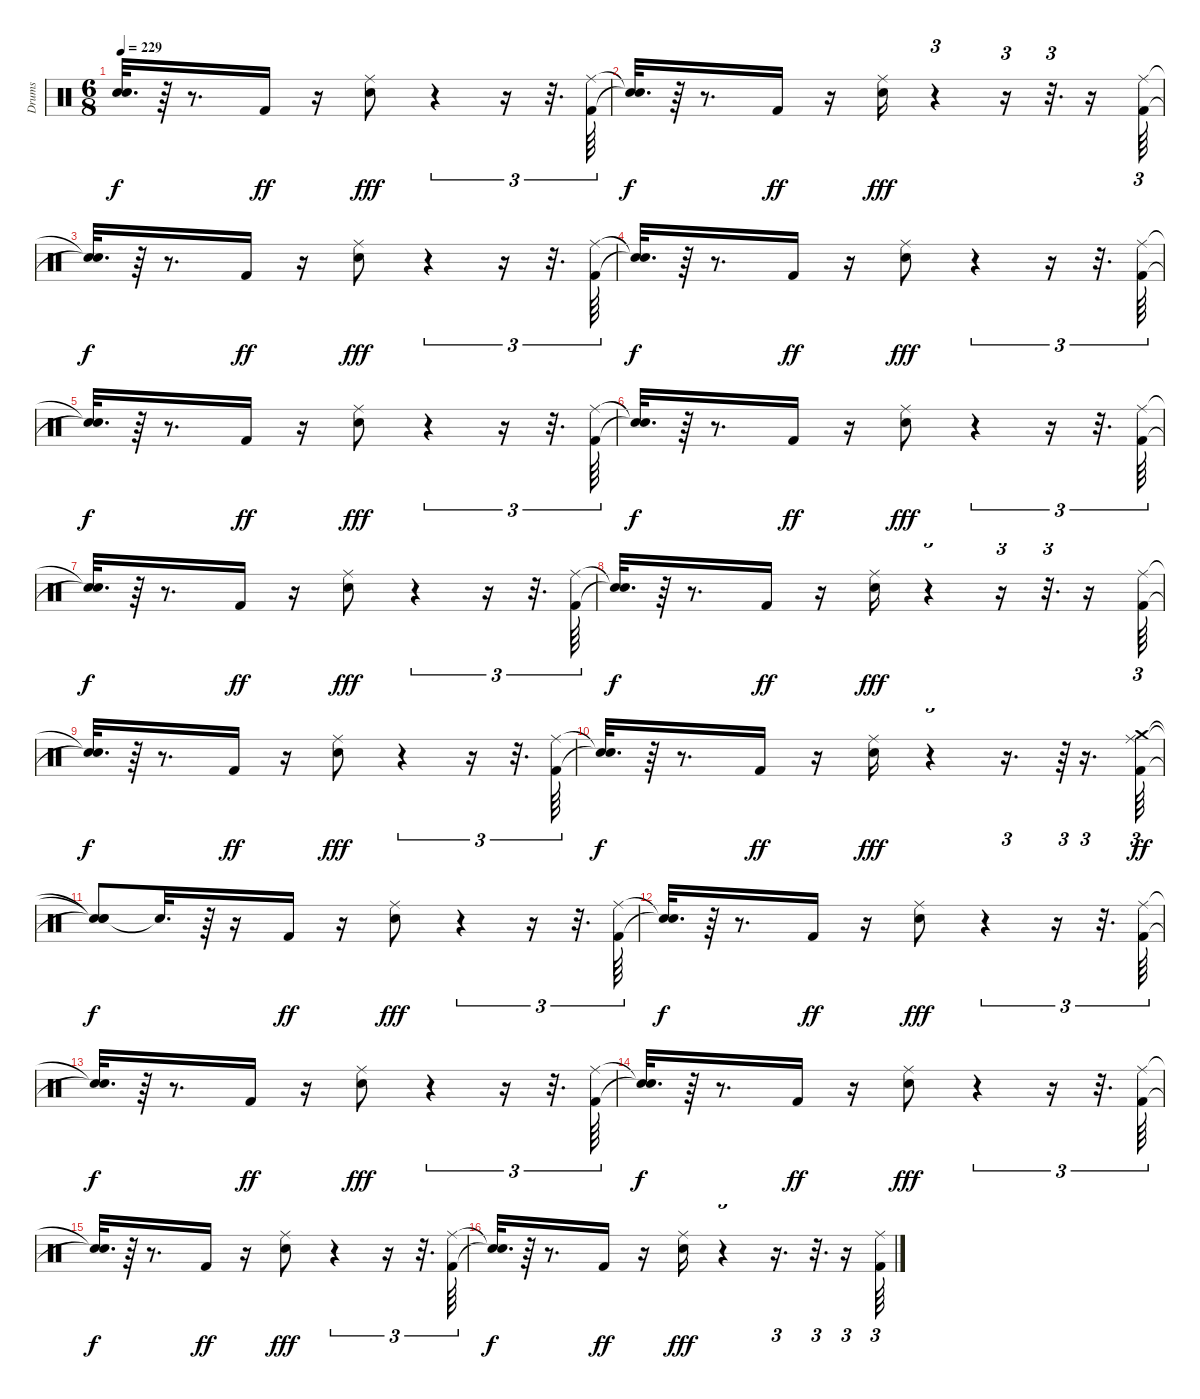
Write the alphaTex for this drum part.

\track ("Drums" "Drums") {instrument percussion}
\staff {score}
\articulation defaults
\ts (6 8)
\tempo 229
\clef neutral
\ks c
("Snare (hit)"{t} "Snare (hit)"{t}).32{d dy f} r.64 r.8{d} "Kick (hit) 2".16{dy ff} r.16 ("Snare (hit) 2" "Ride (middle)").8{dy fff} r.4{tu (3 2)} r.16{tu (3 2)} r.32{d tu (3 2)} ("Kick (hit) 2" "Ride (middle)").64{tu (3 2)} |
("Snare (hit)"{t} "Snare (hit)"{t}).32{d dy f} r.64 r.8{d} "Kick (hit) 2".16{dy ff} r.16 ("Snare (hit) 2" "Ride (middle)").16{dy fff} r.4{tu (3 2)} r.16{tu (3 2)} r.32{d tu (3 2)} r.16 ("Kick (hit) 2" "Ride (middle)").64{tu (3 2)} |
("Snare (hit)"{t} "Snare (hit)"{t}).32{d dy f} r.64 r.8{d} "Kick (hit) 2".16{dy ff} r.16 ("Snare (hit) 2" "Ride (middle)").8{dy fff} r.4{tu (3 2)} r.16{tu (3 2)} r.32{d tu (3 2)} ("Kick (hit) 2" "Ride (middle)").64{tu (3 2)} |
("Snare (hit)"{t} "Snare (hit)"{t}).32{d dy f} r.64 r.8{d} "Kick (hit) 2".16{dy ff} r.16 ("Snare (hit) 2" "Ride (middle)").8{dy fff} r.4{tu (3 2)} r.16{tu (3 2)} r.32{d tu (3 2)} ("Kick (hit) 2" "Ride (middle)").64{tu (3 2)} |
("Snare (hit)"{t} "Snare (hit)"{t}).32{d dy f} r.64 r.8{d} "Kick (hit) 2".16{dy ff} r.16 ("Snare (hit) 2" "Ride (middle)").8{dy fff} r.4{tu (3 2)} r.16{tu (3 2)} r.32{d tu (3 2)} ("Kick (hit) 2" "Ride (middle)").64{tu (3 2)} |
("Snare (hit)"{t} "Snare (hit)"{t}).32{d dy f} r.64 r.8{d} "Kick (hit) 2".16{dy ff} r.16 ("Snare (hit) 2" "Ride (middle)").8{dy fff} r.4{tu (3 2)} r.16{tu (3 2)} r.32{d tu (3 2)} ("Kick (hit) 2" "Ride (middle)").64{tu (3 2)} |
("Snare (hit)"{t} "Snare (hit)"{t}).32{d dy f} r.64 r.8{d} "Kick (hit) 2".16{dy ff} r.16 ("Snare (hit) 2" "Ride (middle)").8{dy fff} r.4{tu (3 2)} r.16{tu (3 2)} r.32{d tu (3 2)} ("Kick (hit) 2" "Ride (middle)").64{tu (3 2)} |
("Snare (hit)"{t} "Snare (hit)"{t}).32{d dy f} r.64 r.8{d} "Kick (hit) 2".16{dy ff} r.16 ("Snare (hit) 2" "Ride (middle)").16{dy fff} r.4{tu (3 2)} r.16{tu (3 2)} r.32{d tu (3 2)} r.16 ("Kick (hit) 2" "Ride (middle)").64{tu (3 2)} |
("Snare (hit)"{t} "Snare (hit)"{t}).32{d dy f} r.64 r.8{d} "Kick (hit) 2".16{dy ff} r.16 ("Snare (hit) 2" "Ride (middle)").8{dy fff} r.4{tu (3 2)} r.16{tu (3 2)} r.32{d tu (3 2)} ("Kick (hit) 2" "Ride (middle)").64{tu (3 2)} |
("Snare (hit)"{t} "Snare (hit)"{t}).32{d dy f} r.64 r.8{d} "Kick (hit) 2".16{dy ff} r.16 ("Snare (hit) 2" "Ride (middle)").16{dy fff} r.4{tu (3 2)} r.16{d tu (3 2)} r.64{tu (3 2)} r.16{d tu (3 2)} ("Kick (hit) 2" "Ride (middle)" "Crash medium (hit)").64{tu (3 2) dy ff} |
("Snare (hit)"{t} "Snare (hit)"{t} "Snare (hit)"{t}).8{dy f} "Snare (hit)"{t}.32{d} r.64 r.16 "Kick (hit) 2".16{dy ff} r.16 ("Snare (hit) 2" "Ride (middle)").8{dy fff} r.4{tu (3 2)} r.16{tu (3 2)} r.32{d tu (3 2)} ("Kick (hit) 2" "Ride (middle)").64{tu (3 2)} |
("Snare (hit)"{t} "Snare (hit)"{t}).32{d dy f} r.64 r.8{d} "Kick (hit) 2".16{dy ff} r.16 ("Snare (hit) 2" "Ride (middle)").8{dy fff} r.4{tu (3 2)} r.16{tu (3 2)} r.32{d tu (3 2)} ("Kick (hit) 2" "Ride (middle)").64{tu (3 2)} |
("Snare (hit)"{t} "Snare (hit)"{t}).32{d dy f} r.64 r.8{d} "Kick (hit) 2".16{dy ff} r.16 ("Snare (hit) 2" "Ride (middle)").8{dy fff} r.4{tu (3 2)} r.16{tu (3 2)} r.32{d tu (3 2)} ("Kick (hit) 2" "Ride (middle)").64{tu (3 2)} |
("Snare (hit)"{t} "Snare (hit)"{t}).32{d dy f} r.64 r.8{d} "Kick (hit) 2".16{dy ff} r.16 ("Snare (hit) 2" "Ride (middle)").8{dy fff} r.4{tu (3 2)} r.16{tu (3 2)} r.32{d tu (3 2)} ("Kick (hit) 2" "Ride (middle)").64{tu (3 2)} |
("Snare (hit)"{t} "Snare (hit)"{t}).32{d dy f} r.64 r.8{d} "Kick (hit) 2".16{dy ff} r.16 ("Snare (hit) 2" "Ride (middle)").8{dy fff} r.4{tu (3 2)} r.16{tu (3 2)} r.32{d tu (3 2)} ("Kick (hit) 2" "Ride (middle)").64{tu (3 2)} |
("Snare (hit)"{t} "Snare (hit)"{t}).32{d dy f} r.64 r.8{d} "Kick (hit) 2".16{dy ff} r.16 ("Snare (hit) 2" "Ride (middle)").16{dy fff} r.4{tu (3 2)} r.16{d tu (3 2)} r.32{d tu (3 2)} r.16{tu (3 2)} ("Kick (hit) 2" "Ride (middle)").64{tu (3 2)}
